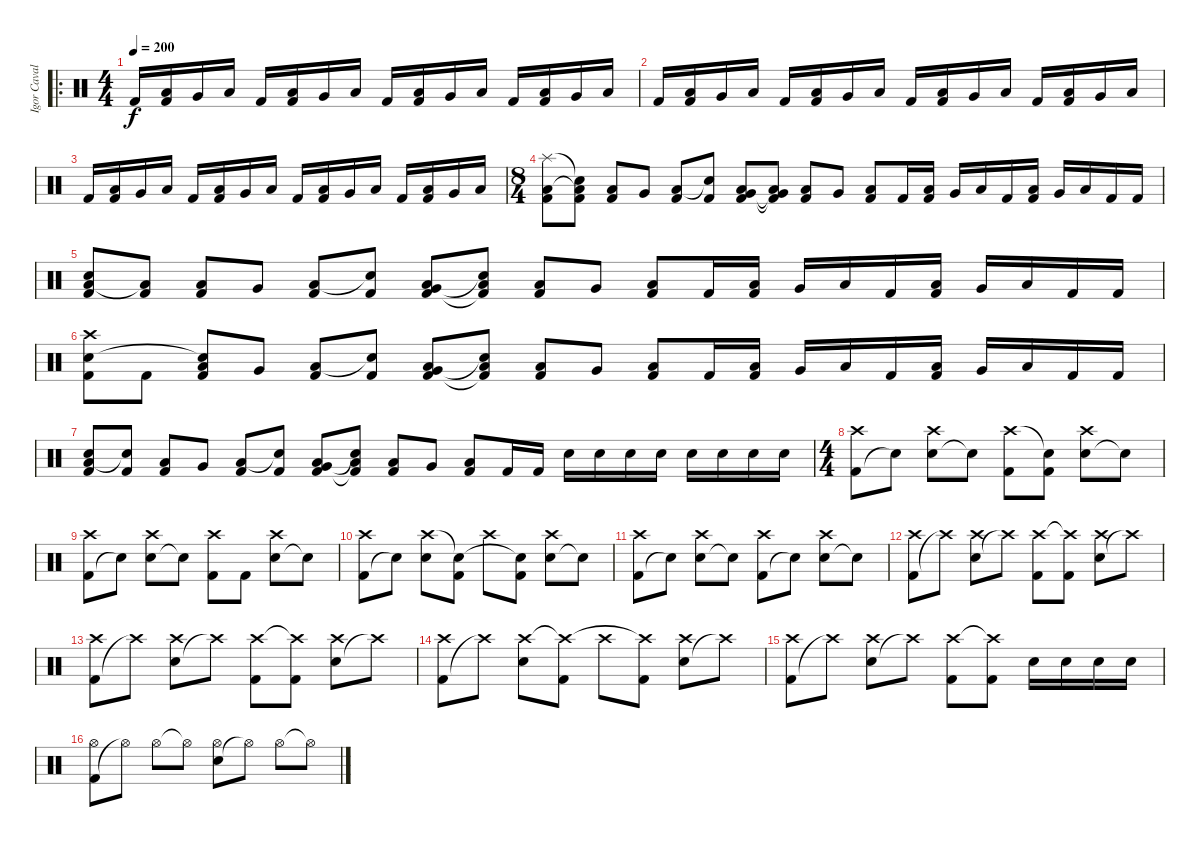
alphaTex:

\track ("Igor Cavalera" "Igor Caval") {instrument percussion}
\staff {score}
\articulation defaults
\ro
\ts (4 4)
\tempo 200
\clef neutral
\ks c "Kick (hit) 2".16{dy f}
("Kick (hit) 2" "Low Floor Tom (hit)").16 "Very Low Tom (hit)".16 "Low Floor Tom (hit)".16 "Kick (hit) 2".16 ("Kick (hit) 2" "Low Floor Tom (hit)").16 "Very Low Tom (hit)".16 "Low Floor Tom (hit)".16 "Kick (hit) 2".16 ("Kick (hit) 2" "Low Floor Tom (hit)").16 "Very Low Tom (hit)".16 "Low Floor Tom (hit)".16 "Kick (hit) 2".16 ("Kick (hit) 2" "Low Floor Tom (hit)").16 "Very Low Tom (hit)".16 "Low Floor Tom (hit)".16 |
"Kick (hit) 2".16 ("Kick (hit) 2" "Low Floor Tom (hit)").16 "Very Low Tom (hit)".16 "Low Floor Tom (hit)".16 "Kick (hit) 2".16 ("Kick (hit) 2" "Low Floor Tom (hit)").16 "Very Low Tom (hit)".16 "Low Floor Tom (hit)".16 "Kick (hit) 2".16 ("Kick (hit) 2" "Low Floor Tom (hit)").16 "Very Low Tom (hit)".16 "Low Floor Tom (hit)".16 "Kick (hit) 2".16 ("Kick (hit) 2" "Low Floor Tom (hit)").16 "Very Low Tom (hit)".16 "Low Floor Tom (hit)".16 |
"Kick (hit) 2".16 ("Kick (hit) 2" "Low Floor Tom (hit)").16 "Very Low Tom (hit)".16 "Low Floor Tom (hit)".16 "Kick (hit) 2".16 ("Kick (hit) 2" "Low Floor Tom (hit)").16 "Very Low Tom (hit)".16 "Low Floor Tom (hit)".16 "Kick (hit) 2".16 ("Kick (hit) 2" "Low Floor Tom (hit)").16 "Very Low Tom (hit)".16 "Low Floor Tom (hit)".16 "Kick (hit) 2".16 ("Kick (hit) 2" "Low Floor Tom (hit)").16 "Very Low Tom (hit)".16 "Low Floor Tom (hit)".16 |
\ts (8 4)
("Kick (hit) 2" "Low Floor Tom (hit)" "Splash (hit)").8 ("Kick (hit) 2" "Low Floor Tom (hit)"{t} "Snare (hit)"{t}).8 ("Kick (hit) 2" "Low Floor Tom (hit)").8 "Very Low Tom (hit)".8 ("Kick (hit) 2" "Low Floor Tom (hit)").8 ("Kick (hit) 2" "Snare (hit)"{t}).8 ("Kick (hit) 2" "Low Floor Tom (hit)" "Very Low Tom (hit)").8 ("Kick (hit) 2"{t} "Low Floor Tom (hit)" "Very Low Tom (hit)"{t}).8 ("Kick (hit) 2" "Low Floor Tom (hit)").8 "Very Low Tom (hit)".8 ("Kick (hit) 2" "Low Floor Tom (hit)").8 "Kick (hit) 2".16 ("Kick (hit) 2" "Low Floor Tom (hit)").16 "Very Low Tom (hit)".16 "Low Floor Tom (hit)".16 "Kick (hit) 2".16 ("Kick (hit) 2" "Low Floor Tom (hit)").16 "Very Low Tom (hit)".16 "Low Floor Tom (hit)".16 "Kick (hit) 2".16 "Kick (hit) 2".16 |
("Kick (hit) 2" "Low Floor Tom (hit)" "Snare (hit) 2").8 ("Kick (hit) 2" "Low Floor Tom (hit)"{t}).8 ("Kick (hit) 2" "Low Floor Tom (hit)").8 "Very Low Tom (hit)".8 ("Kick (hit) 2" "Low Floor Tom (hit)").8 ("Kick (hit) 2" "Snare (hit)"{t}).8 ("Kick (hit) 2" "Low Floor Tom (hit)" "Very Low Tom (hit)").8 ("Kick (hit) 2"{t} "Low Floor Tom (hit)" "Snare (hit)"{t}).8 ("Kick (hit) 2" "Low Floor Tom (hit)").8 "Very Low Tom (hit)".8 ("Kick (hit) 2" "Low Floor Tom (hit)").8 "Kick (hit) 2".16 ("Kick (hit) 2" "Low Floor Tom (hit)").16 "Very Low Tom (hit)".16 "Low Floor Tom (hit)".16 "Kick (hit) 2".16 ("Kick (hit) 2" "Low Floor Tom (hit)").16 "Very Low Tom (hit)".16 "Low Floor Tom (hit)".16 "Kick (hit) 2".16 "Kick (hit) 2".16 |
("Kick (hit) 2" "Crash high (hit)" "Snare (hit) 2").8 "Kick (hit) 2".8 ("Kick (hit) 2" "Low Floor Tom (hit)" "Snare (hit)"{t}).8 "Very Low Tom (hit)".8 ("Kick (hit) 2" "Low Floor Tom (hit)").8 ("Kick (hit) 2" "Snare (hit)"{t}).8 ("Kick (hit) 2" "Low Floor Tom (hit)" "Very Low Tom (hit)").8 ("Kick (hit) 2"{t} "Low Floor Tom (hit)" "Snare (hit)"{t}).8 ("Kick (hit) 2" "Low Floor Tom (hit)").8 "Very Low Tom (hit)".8 ("Kick (hit) 2" "Low Floor Tom (hit)").8 "Kick (hit) 2".16 ("Kick (hit) 2" "Low Floor Tom (hit)").16 "Very Low Tom (hit)".16 "Low Floor Tom (hit)".16 "Kick (hit) 2".16 ("Kick (hit) 2" "Low Floor Tom (hit)").16 "Very Low Tom (hit)".16 "Low Floor Tom (hit)".16 "Kick (hit) 2".16 "Kick (hit) 2".16 |
("Kick (hit) 2" "Low Floor Tom (hit)" "Snare (hit) 2").8 ("Kick (hit) 2" "Snare (hit)"{t}).8 ("Kick (hit) 2" "Low Floor Tom (hit)").8 "Very Low Tom (hit)".8 ("Kick (hit) 2" "Low Floor Tom (hit)").8 ("Kick (hit) 2" "Snare (hit)"{t}).8 ("Kick (hit) 2" "Low Floor Tom (hit)" "Very Low Tom (hit)").8 ("Kick (hit) 2"{t} "Low Floor Tom (hit)" "Snare (hit)"{t}).8 ("Kick (hit) 2" "Low Floor Tom (hit)").8 "Very Low Tom (hit)".8 ("Kick (hit) 2" "Low Floor Tom (hit)").8 "Kick (hit) 2".16 "Kick (hit) 2".16 "Snare (hit) 2".16 "Snare (hit) 2".16 "Snare (hit) 2".16 "Snare (hit) 2".16 "Snare (hit) 2".16 "Snare (hit) 2".16 "Snare (hit) 2".16 "Snare (hit) 2".16 |
\ts (4 4)
("Kick (hit) 2" "Crash high (hit)").8 "Snare (hit)"{t}.8 ("Snare (hit) 2" "Crash high (hit)").8 "Snare (hit)"{t}.8 ("Kick (hit) 2" "Crash high (hit)").8 ("Kick (hit) 2" "Snare (hit)"{t}).8 ("Snare (hit) 2" "Crash high (hit)").8 "Snare (hit)"{t}.8 |
("Kick (hit) 2" "Crash high (hit)").8 "Snare (hit)"{t}.8 ("Snare (hit) 2" "Crash high (hit)").8 "Snare (hit)"{t}.8 ("Kick (hit) 2" "Crash high (hit)").8 "Kick (hit) 2".8 ("Snare (hit) 2" "Crash high (hit)").8 "Snare (hit)"{t}.8 |
("Kick (hit) 2" "Crash high (hit)").8 "Snare (hit)"{t}.8 ("Snare (hit) 2" "Crash high (hit)").8 ("Kick (hit) 2" "Snare (hit)"{t}).8 "Crash high (hit)".8 ("Kick (hit) 2" "Snare (hit)"{t}).8 ("Snare (hit) 2" "Crash high (hit)").8 "Snare (hit)"{t}.8 |
("Kick (hit) 2" "Crash high (hit)").8 "Snare (hit)"{t}.8 ("Snare (hit) 2" "Crash high (hit)").8 "Snare (hit)"{t}.8 ("Kick (hit) 2" "Crash high (hit)").8 "Snare (hit)"{t}.8 ("Snare (hit) 2" "Crash high (hit)").8 "Snare (hit)"{t}.8 |
("Kick (hit) 2" "Crash high (hit)").8 "Crash high (hit)"{t}.8 ("Snare (hit) 2" "Crash high (hit)").8 "Crash high (hit)"{t}.8 ("Kick (hit) 2" "Crash high (hit)").8 ("Kick (hit) 2" "Crash high (hit)"{t}).8 ("Snare (hit) 2" "Crash high (hit)").8 "Crash high (hit)"{t}.8 |
("Kick (hit) 2" "Crash high (hit)").8 "Crash high (hit)"{t}.8 ("Snare (hit) 2" "Crash high (hit)").8 "Crash high (hit)"{t}.8 ("Kick (hit) 2" "Crash high (hit)").8 ("Kick (hit) 2" "Crash high (hit)"{t}).8 ("Snare (hit) 2" "Crash high (hit)").8 "Crash high (hit)"{t}.8 |
("Kick (hit) 2" "Crash high (hit)").8 "Crash high (hit)"{t}.8 ("Snare (hit) 2" "Crash high (hit)").8 ("Kick (hit) 2" "Crash high (hit)"{t}).8 "Crash high (hit)".8 ("Kick (hit) 2" "Crash high (hit)"{t}).8 ("Snare (hit) 2" "Crash high (hit)").8 "Crash high (hit)"{t}.8 |
("Kick (hit) 2" "Crash high (hit)").8 "Crash high (hit)"{t}.8 ("Snare (hit) 2" "Crash high (hit)").8 "Crash high (hit)"{t}.8 ("Kick (hit) 2" "Crash high (hit)").8 ("Kick (hit) 2" "Crash high (hit)"{t}).8 "Snare (hit) 2".16 "Snare (hit) 2".16 "Snare (hit) 2".16 "Snare (hit) 2".16 |
("Kick (hit) 2" "Hi-Hat (open)").8 "Hi-Hat (open)"{t}.8 "Hi-Hat (open)".8 "Hi-Hat (open)"{t}.8 ("Snare (hit) 2" "Hi-Hat (open)").8 "Hi-Hat (open)"{t}.8 "Hi-Hat (open)".8 "Hi-Hat (open)"{t}.8
